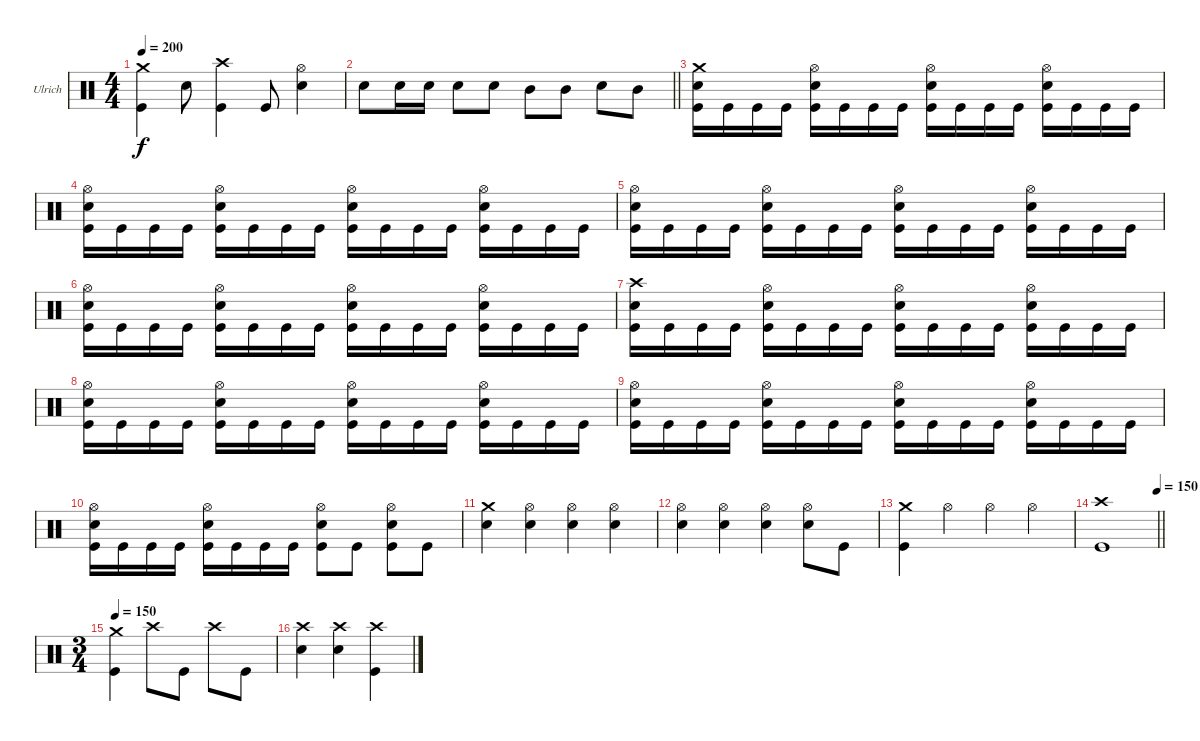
\bracketExtendMode groupsimilarinstruments
\firstSystemTrackNameOrientation horizontal
\otherSystemsTrackNameOrientation horizontal
\track ("Drumkit" "Ulrich") {instrument percussion}
\staff {score}
\articulation defaults
\ts (4 4)
\tempo 200
\clef neutral
\ks c
("Crash medium (hit)" "Kick (hit)").4{dy f} "Snare (hit) 2".8 ("Crash high (hit)" "Kick (hit)").4 "Kick (hit)".8 ("Hi-Hat (open)" "Snare (hit) 2").4 |
\barLineRight lightlight "Snare (hit) 2".8 "Snare (hit) 2".16 "Snare (hit) 2".16 "Snare (hit) 2".8 "Snare (hit) 2".8 "Mid Tom (hit)".8 "Mid Tom (hit)".8 "Snare (hit) 2".8 "Mid Tom (hit)".8
|
("Crash medium (hit)" "Snare (hit) 2" "Kick (hit)").16 "Kick (hit)".16 "Kick (hit)".16 "Kick (hit)".16 ("Hi-Hat (open)" "Snare (hit) 2" "Kick (hit)").16 "Kick (hit)".16 "Kick (hit)".16 "Kick (hit)".16 ("Hi-Hat (open)" "Snare (hit) 2" "Kick (hit)").16 "Kick (hit)".16 "Kick (hit)".16 "Kick (hit)".16 ("Hi-Hat (open)" "Snare (hit) 2" "Kick (hit)").16 "Kick (hit)".16 "Kick (hit)".16 "Kick (hit)".16 |
("Hi-Hat (open)" "Snare (hit) 2" "Kick (hit)").16 "Kick (hit)".16 "Kick (hit)".16 "Kick (hit)".16 ("Hi-Hat (open)" "Snare (hit) 2" "Kick (hit)").16 "Kick (hit)".16 "Kick (hit)".16 "Kick (hit)".16 ("Hi-Hat (open)" "Snare (hit) 2" "Kick (hit)").16 "Kick (hit)".16 "Kick (hit)".16 "Kick (hit)".16 ("Hi-Hat (open)" "Snare (hit) 2" "Kick (hit)").16 "Kick (hit)".16 "Kick (hit)".16 "Kick (hit)".16 |
("Hi-Hat (open)" "Snare (hit) 2" "Kick (hit)").16 "Kick (hit)".16 "Kick (hit)".16 "Kick (hit)".16 ("Hi-Hat (open)" "Snare (hit) 2" "Kick (hit)").16 "Kick (hit)".16 "Kick (hit)".16 "Kick (hit)".16 ("Hi-Hat (open)" "Snare (hit) 2" "Kick (hit)").16 "Kick (hit)".16 "Kick (hit)".16 "Kick (hit)".16 ("Hi-Hat (open)" "Snare (hit) 2" "Kick (hit)").16 "Kick (hit)".16 "Kick (hit)".16 "Kick (hit)".16 |
("Hi-Hat (open)" "Snare (hit) 2" "Kick (hit)").16 "Kick (hit)".16 "Kick (hit)".16 "Kick (hit)".16 ("Hi-Hat (open)" "Snare (hit) 2" "Kick (hit)").16 "Kick (hit)".16 "Kick (hit)".16 "Kick (hit)".16 ("Hi-Hat (open)" "Snare (hit) 2" "Kick (hit)").16 "Kick (hit)".16 "Kick (hit)".16 "Kick (hit)".16 ("Hi-Hat (open)" "Snare (hit) 2" "Kick (hit)").16 "Kick (hit)".16 "Kick (hit)".16 "Kick (hit)".16 |
("Crash high (hit)" "Snare (hit) 2" "Kick (hit)").16 "Kick (hit)".16 "Kick (hit)".16 "Kick (hit)".16 ("Hi-Hat (open)" "Snare (hit) 2" "Kick (hit)").16 "Kick (hit)".16 "Kick (hit)".16 "Kick (hit)".16 ("Hi-Hat (open)" "Snare (hit) 2" "Kick (hit)").16 "Kick (hit)".16 "Kick (hit)".16 "Kick (hit)".16 ("Hi-Hat (open)" "Snare (hit) 2" "Kick (hit)").16 "Kick (hit)".16 "Kick (hit)".16 "Kick (hit)".16 |
("Hi-Hat (open)" "Snare (hit) 2" "Kick (hit)").16 "Kick (hit)".16 "Kick (hit)".16 "Kick (hit)".16 ("Hi-Hat (open)" "Snare (hit) 2" "Kick (hit)").16 "Kick (hit)".16 "Kick (hit)".16 "Kick (hit)".16 ("Hi-Hat (open)" "Snare (hit) 2" "Kick (hit)").16 "Kick (hit)".16 "Kick (hit)".16 "Kick (hit)".16 ("Hi-Hat (open)" "Snare (hit) 2" "Kick (hit)").16 "Kick (hit)".16 "Kick (hit)".16 "Kick (hit)".16 |
("Hi-Hat (open)" "Snare (hit) 2" "Kick (hit)").16 "Kick (hit)".16 "Kick (hit)".16 "Kick (hit)".16 ("Hi-Hat (open)" "Snare (hit) 2" "Kick (hit)").16 "Kick (hit)".16 "Kick (hit)".16 "Kick (hit)".16 ("Hi-Hat (open)" "Snare (hit) 2" "Kick (hit)").16 "Kick (hit)".16 "Kick (hit)".16 "Kick (hit)".16 ("Hi-Hat (open)" "Snare (hit) 2" "Kick (hit)").16 "Kick (hit)".16 "Kick (hit)".16 "Kick (hit)".16 |
("Hi-Hat (open)" "Snare (hit) 2" "Kick (hit)").16 "Kick (hit)".16 "Kick (hit)".16 "Kick (hit)".16 ("Hi-Hat (open)" "Snare (hit) 2" "Kick (hit)").16 "Kick (hit)".16 "Kick (hit)".16 "Kick (hit)".16 ("Hi-Hat (open)" "Snare (hit) 2" "Kick (hit)").8 "Kick (hit)".8 ("Hi-Hat (open)" "Snare (hit) 2" "Kick (hit)").8 "Kick (hit)".8 |
("Crash medium (hit)" "Snare (hit) 2").4 ("Hi-Hat (open)" "Snare (hit) 2").4 ("Hi-Hat (open)" "Snare (hit) 2").4 ("Hi-Hat (open)" "Snare (hit) 2").4 |
("Hi-Hat (open)" "Snare (hit) 2").4 ("Hi-Hat (open)" "Snare (hit) 2").4 ("Hi-Hat (open)" "Snare (hit) 2").4 ("Hi-Hat (open)" "Snare (hit) 2").8 "Kick (hit)".8 |
("Crash medium (hit)" "Kick (hit)").4 "Hi-Hat (open)".4 "Hi-Hat (open)".4 "Hi-Hat (open)".4 |
\tempo (150 1)
\barLineRight lightlight
("Crash high (hit)" "Kick (hit)").1 |
\ts (3 4)
\beaming (8 2 2 2)
\tempo 150
("Crash medium (hit)" "Kick (hit)").4 "Crash high (hit)".8 "Kick (hit)".8 "Crash high (hit)".8 "Kick (hit)".8 |
("Crash high (hit)" "Snare (hit) 2").4 ("Crash high (hit)" "Snare (hit) 2").4 ("Crash high (hit)" "Kick (hit)").4
